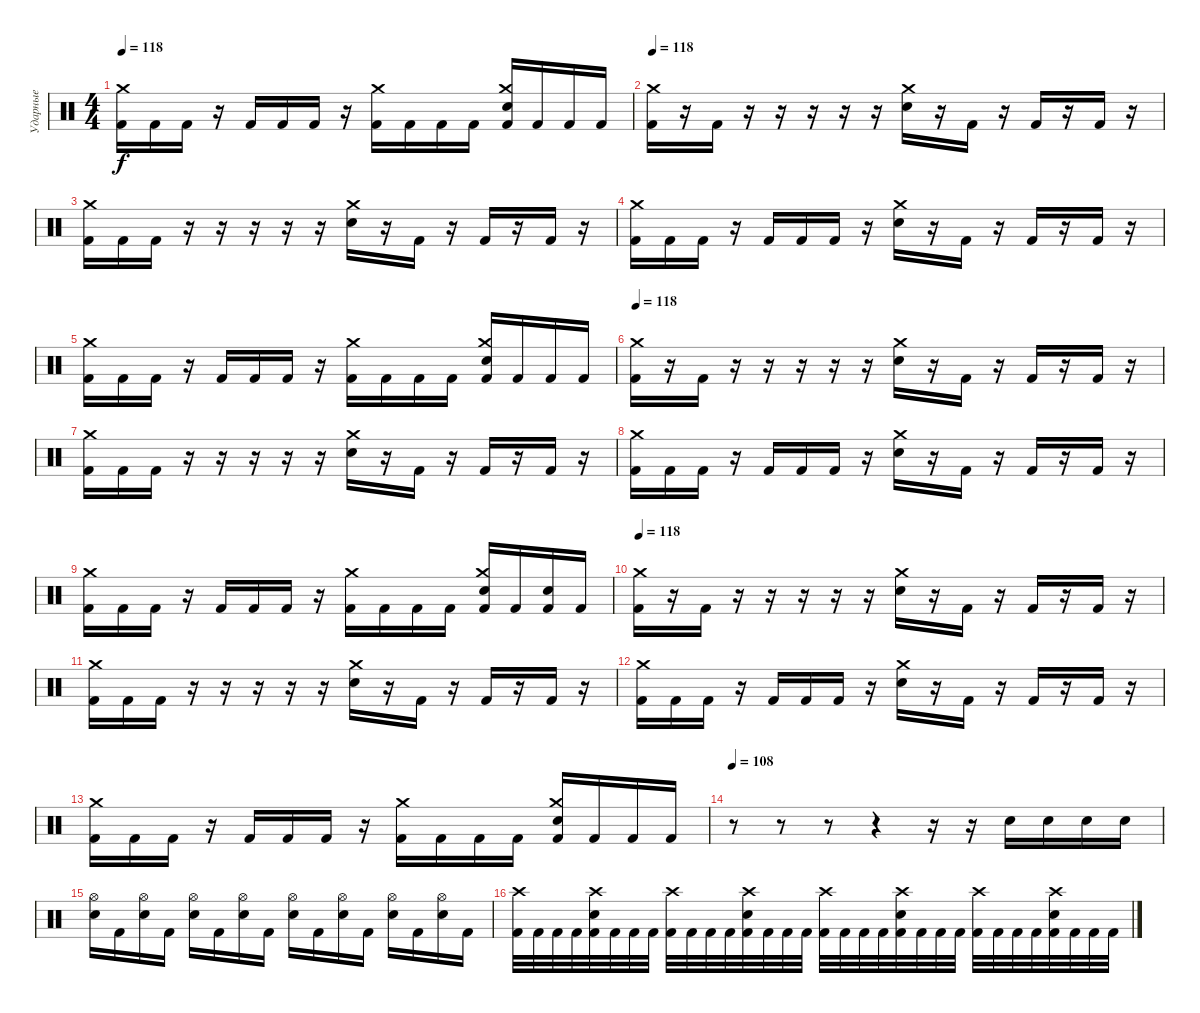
\track ("Ударные" "Ударные") {instrument percussion}
\staff {score}
\articulation defaults
\ts (4 4)
\tempo 118
\clef neutral
\ks c
("Kick (hit) 2" "Crash medium (hit)").16{dy f} "Kick (hit) 2".16 "Kick (hit) 2".16 r.16 "Kick (hit) 2".16 "Kick (hit) 2".16 "Kick (hit) 2".16 r.16 ("Crash medium (hit)" "Kick (hit) 2").16 "Kick (hit) 2".16 "Kick (hit) 2".16 "Kick (hit) 2".16 ("Crash medium (hit)" "Electric Snare (hit)" "Kick (hit) 2").16 "Kick (hit) 2".16 "Kick (hit) 2".16 "Kick (hit) 2".16 |
\tempo 118
("Kick (hit) 2" "Crash medium (hit)").16 r.16 "Kick (hit) 2".16 r.16 r.16 r.16 r.16 r.16 ("Electric Snare (hit)" "Crash medium (hit)").16 r.16 "Kick (hit) 2".16 r.16 "Kick (hit) 2".16 r.16 "Kick (hit) 2".16 r.16 |
("Kick (hit) 2" "Crash medium (hit)").16 "Kick (hit) 2".16 "Kick (hit) 2".16 r.16 r.16 r.16 r.16 r.16 ("Electric Snare (hit)" "Crash medium (hit)").16 r.16 "Kick (hit) 2".16 r.16 "Kick (hit) 2".16 r.16 "Kick (hit) 2".16 r.16 |
("Kick (hit) 2" "Crash medium (hit)").16 "Kick (hit) 2".16 "Kick (hit) 2".16 r.16 "Kick (hit) 2".16 "Kick (hit) 2".16 "Kick (hit) 2".16 r.16 ("Electric Snare (hit)" "Crash medium (hit)").16 r.16 "Kick (hit) 2".16 r.16 "Kick (hit) 2".16 r.16 "Kick (hit) 2".16 r.16 |
("Kick (hit) 2" "Crash medium (hit)").16 "Kick (hit) 2".16 "Kick (hit) 2".16 r.16 "Kick (hit) 2".16 "Kick (hit) 2".16 "Kick (hit) 2".16 r.16 ("Crash medium (hit)" "Kick (hit) 2").16 "Kick (hit) 2".16 "Kick (hit) 2".16 "Kick (hit) 2".16 ("Crash medium (hit)" "Electric Snare (hit)" "Kick (hit) 2").16 "Kick (hit) 2".16 "Kick (hit) 2".16 "Kick (hit) 2".16 |
\tempo 118
("Kick (hit) 2" "Crash medium (hit)").16 r.16 "Kick (hit) 2".16 r.16 r.16 r.16 r.16 r.16 ("Electric Snare (hit)" "Crash medium (hit)").16 r.16 "Kick (hit) 2".16 r.16 "Kick (hit) 2".16 r.16 "Kick (hit) 2".16 r.16 |
("Kick (hit) 2" "Crash medium (hit)").16 "Kick (hit) 2".16 "Kick (hit) 2".16 r.16 r.16 r.16 r.16 r.16 ("Electric Snare (hit)" "Crash medium (hit)").16 r.16 "Kick (hit) 2".16 r.16 "Kick (hit) 2".16 r.16 "Kick (hit) 2".16 r.16 |
("Kick (hit) 2" "Crash medium (hit)").16 "Kick (hit) 2".16 "Kick (hit) 2".16 r.16 "Kick (hit) 2".16 "Kick (hit) 2".16 "Kick (hit) 2".16 r.16 ("Electric Snare (hit)" "Crash medium (hit)").16 r.16 "Kick (hit) 2".16 r.16 "Kick (hit) 2".16 r.16 "Kick (hit) 2".16 r.16 |
("Kick (hit) 2" "Crash medium (hit)").16 "Kick (hit) 2".16 "Kick (hit) 2".16 r.16 "Kick (hit) 2".16 "Kick (hit) 2".16 "Kick (hit) 2".16 r.16 ("Crash medium (hit)" "Kick (hit) 2").16 "Kick (hit) 2".16 "Kick (hit) 2".16 "Kick (hit) 2".16 ("Crash medium (hit)" "Electric Snare (hit)" "Kick (hit) 2").16 "Kick (hit) 2".16 ("Electric Snare (hit)" "Kick (hit) 2").16 "Kick (hit) 2".16 |
\tempo 118
("Kick (hit) 2" "Crash medium (hit)").16 r.16 "Kick (hit) 2".16 r.16 r.16 r.16 r.16 r.16 ("Electric Snare (hit)" "Crash medium (hit)").16 r.16 "Kick (hit) 2".16 r.16 "Kick (hit) 2".16 r.16 "Kick (hit) 2".16 r.16 |
("Kick (hit) 2" "Crash medium (hit)").16 "Kick (hit) 2".16 "Kick (hit) 2".16 r.16 r.16 r.16 r.16 r.16 ("Electric Snare (hit)" "Crash medium (hit)").16 r.16 "Kick (hit) 2".16 r.16 "Kick (hit) 2".16 r.16 "Kick (hit) 2".16 r.16 |
("Kick (hit) 2" "Crash medium (hit)").16 "Kick (hit) 2".16 "Kick (hit) 2".16 r.16 "Kick (hit) 2".16 "Kick (hit) 2".16 "Kick (hit) 2".16 r.16 ("Electric Snare (hit)" "Crash medium (hit)").16 r.16 "Kick (hit) 2".16 r.16 "Kick (hit) 2".16 r.16 "Kick (hit) 2".16 r.16 |
("Kick (hit) 2" "Crash medium (hit)").16 "Kick (hit) 2".16 "Kick (hit) 2".16 r.16 "Kick (hit) 2".16 "Kick (hit) 2".16 "Kick (hit) 2".16 r.16 ("Crash medium (hit)" "Kick (hit) 2").16 "Kick (hit) 2".16 "Kick (hit) 2".16 "Kick (hit) 2".16 ("Crash medium (hit)" "Electric Snare (hit)" "Kick (hit) 2").16 "Kick (hit) 2".16 "Kick (hit) 2".16 "Kick (hit) 2".16 |
\tempo 108
r.8 r.8 r.8 r.4 r.16 r.16 "Electric Snare (hit)".16 "Electric Snare (hit)".16 "Electric Snare (hit)".16 "Electric Snare (hit)".16 |
("Electric Snare (hit)" "Hi-Hat (open)").16 "Kick (hit) 2".16 ("Electric Snare (hit)" "Hi-Hat (open)").16 "Kick (hit) 2".16 ("Electric Snare (hit)" "Hi-Hat (open)").16 "Kick (hit) 2".16 ("Electric Snare (hit)" "Hi-Hat (open)").16 "Kick (hit) 2".16 ("Electric Snare (hit)" "Hi-Hat (open)").16 "Kick (hit) 2".16 ("Electric Snare (hit)" "Hi-Hat (open)").16 "Kick (hit) 2".16 ("Electric Snare (hit)" "Hi-Hat (open)").16 "Kick (hit) 2".16 ("Electric Snare (hit)" "Hi-Hat (open)").16 "Kick (hit) 2".16 |
("Kick (hit) 2" "Crash high (hit)").32 "Kick (hit) 2".32 "Kick (hit) 2".32 "Kick (hit) 2".32 ("Kick (hit) 2" "Electric Snare (hit)" "Crash high (hit)").32 "Kick (hit) 2".32 "Kick (hit) 2".32 "Kick (hit) 2".32 ("Kick (hit) 2" "Crash high (hit)").32 "Kick (hit) 2".32 "Kick (hit) 2".32 "Kick (hit) 2".32 ("Kick (hit) 2" "Electric Snare (hit)" "Crash high (hit)").32 "Kick (hit) 2".32 "Kick (hit) 2".32 "Kick (hit) 2".32 ("Kick (hit) 2" "Crash high (hit)").32 "Kick (hit) 2".32 "Kick (hit) 2".32 "Kick (hit) 2".32 ("Kick (hit) 2" "Electric Snare (hit)" "Crash high (hit)").32 "Kick (hit) 2".32 "Kick (hit) 2".32 "Kick (hit) 2".32 ("Kick (hit) 2" "Crash high (hit)").32 "Kick (hit) 2".32 "Kick (hit) 2".32 "Kick (hit) 2".32 ("Kick (hit) 2" "Electric Snare (hit)" "Crash high (hit)").32 "Kick (hit) 2".32 "Kick (hit) 2".32 "Kick (hit) 2".32
